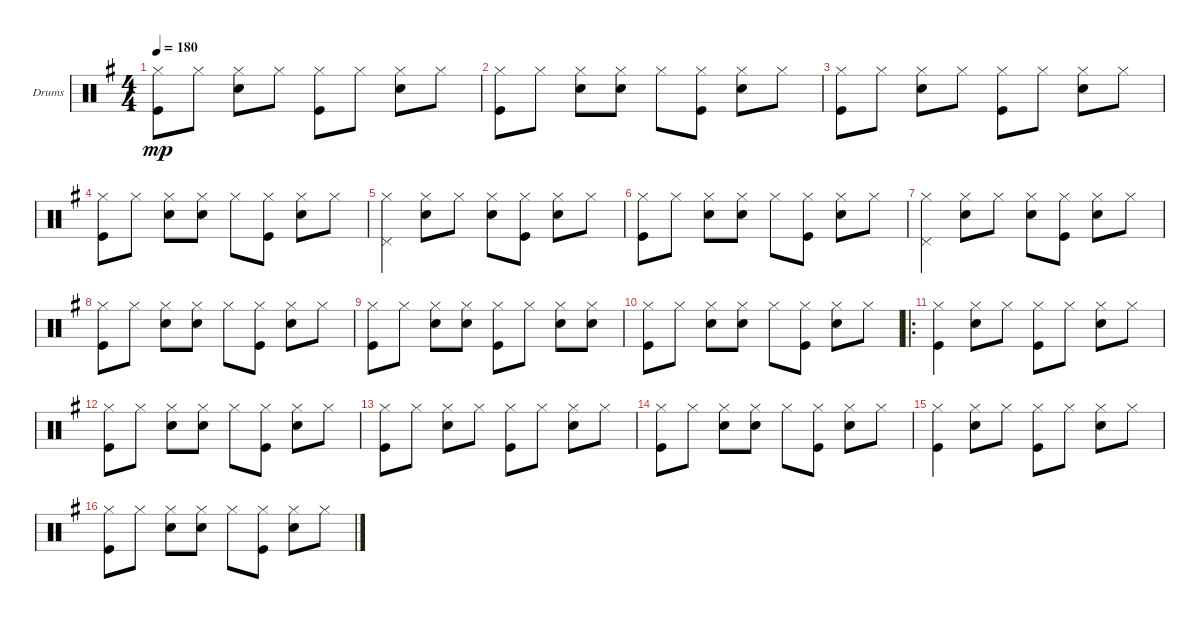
\defaultSystemsLayout 4
\bracketExtendMode groupsimilarinstruments
\firstSystemTrackNameOrientation horizontal
\otherSystemsTrackNameOrientation horizontal
\track ("Drumkit" "Drums") {instrument percussion}
\staff {score}
\articulation defaults
\ts (4 4)
\tempo 180
\clef neutral
\ks g
("Hi-Hat (closed)" "Kick (hit)").8{dy mp} "Hi-Hat (closed)".8 ("Hi-Hat (closed)" "Snare (hit) 2").8 "Hi-Hat (closed)".8 ("Hi-Hat (closed)" "Kick (hit)").8 "Hi-Hat (closed)".8 ("Hi-Hat (closed)" "Snare (hit) 2").8 "Hi-Hat (closed)".8 |
("Hi-Hat (closed)" "Kick (hit)").8 "Hi-Hat (closed)".8 ("Hi-Hat (closed)" "Snare (hit) 2").8 ("Snare (hit) 2" "Hi-Hat (closed)").8 "Hi-Hat (closed)".8 ("Hi-Hat (closed)" "Kick (hit)").8 ("Hi-Hat (closed)" "Snare (hit) 2").8 "Hi-Hat (closed)".8 |
("Hi-Hat (closed)" "Kick (hit)").8 "Hi-Hat (closed)".8 ("Hi-Hat (closed)" "Snare (hit) 2").8 "Hi-Hat (closed)".8 ("Hi-Hat (closed)" "Kick (hit)").8 "Hi-Hat (closed)".8 ("Hi-Hat (closed)" "Snare (hit) 2").8 "Hi-Hat (closed)".8 |
("Hi-Hat (closed)" "Kick (hit)").8 "Hi-Hat (closed)".8 ("Hi-Hat (closed)" "Snare (hit) 2").8 ("Snare (hit) 2" "Hi-Hat (closed)").8 "Hi-Hat (closed)".8 ("Hi-Hat (closed)" "Kick (hit)").8 ("Hi-Hat (closed)" "Snare (hit) 2").8 "Hi-Hat (closed)".8 |
("Pedal Hi-Hat (hit)" "Hi-Hat (closed)").4 ("Hi-Hat (closed)" "Snare (hit) 2").8 "Hi-Hat (closed)".8 ("Hi-Hat (closed)" "Snare (hit) 2").8 ("Hi-Hat (closed)" "Kick (hit)").8 ("Hi-Hat (closed)" "Snare (hit) 2").8 "Hi-Hat (closed)".8 |
("Hi-Hat (closed)" "Kick (hit)").8 "Hi-Hat (closed)".8 ("Hi-Hat (closed)" "Snare (hit) 2").8 ("Snare (hit) 2" "Hi-Hat (closed)").8 "Hi-Hat (closed)".8 ("Hi-Hat (closed)" "Kick (hit)").8 ("Hi-Hat (closed)" "Snare (hit) 2").8 "Hi-Hat (closed)".8 |
("Pedal Hi-Hat (hit)" "Hi-Hat (closed)").4 ("Hi-Hat (closed)" "Snare (hit) 2").8 "Hi-Hat (closed)".8 ("Hi-Hat (closed)" "Snare (hit) 2").8 ("Hi-Hat (closed)" "Kick (hit)").8 ("Hi-Hat (closed)" "Snare (hit) 2").8 "Hi-Hat (closed)".8 |
("Hi-Hat (closed)" "Kick (hit)").8 "Hi-Hat (closed)".8 ("Hi-Hat (closed)" "Snare (hit) 2").8 ("Snare (hit) 2" "Hi-Hat (closed)").8 "Hi-Hat (closed)".8 ("Hi-Hat (closed)" "Kick (hit)").8 ("Hi-Hat (closed)" "Snare (hit) 2").8 "Hi-Hat (closed)".8 |
("Kick (hit)" "Hi-Hat (closed)").8 "Hi-Hat (closed)".8 ("Hi-Hat (closed)" "Snare (hit) 2").8 ("Hi-Hat (closed)" "Snare (hit) 2").8 ("Hi-Hat (closed)" "Kick (hit)").8 "Hi-Hat (closed)".8 ("Hi-Hat (closed)" "Snare (hit) 2").8 ("Snare (hit) 2" "Hi-Hat (closed)").8 |
("Hi-Hat (closed)" "Kick (hit)").8 "Hi-Hat (closed)".8 ("Hi-Hat (closed)" "Snare (hit) 2").8 ("Hi-Hat (closed)" "Snare (hit) 2").8 "Hi-Hat (closed)".8 ("Hi-Hat (closed)" "Kick (hit)").8 ("Hi-Hat (closed)" "Snare (hit) 2").8 "Hi-Hat (closed)".8 |
\ro
("Hi-Hat (closed)" "Kick (hit)").4 ("Snare (hit) 2" "Hi-Hat (closed)").8 "Hi-Hat (closed)".8 ("Hi-Hat (closed)" "Kick (hit)").8 "Hi-Hat (closed)".8 ("Hi-Hat (closed)" "Snare (hit) 2").8 "Hi-Hat (closed)".8 |
("Hi-Hat (closed)" "Kick (hit)").8 "Hi-Hat (closed)".8 ("Hi-Hat (closed)" "Snare (hit) 2").8 ("Snare (hit) 2" "Hi-Hat (closed)").8 "Hi-Hat (closed)".8 ("Hi-Hat (closed)" "Kick (hit)").8 ("Hi-Hat (closed)" "Snare (hit) 2").8 "Hi-Hat (closed)".8 |
("Hi-Hat (closed)" "Kick (hit)").8 "Hi-Hat (closed)".8 ("Hi-Hat (closed)" "Snare (hit) 2").8 "Hi-Hat (closed)".8 ("Hi-Hat (closed)" "Kick (hit)").8 "Hi-Hat (closed)".8 ("Hi-Hat (closed)" "Snare (hit) 2").8 "Hi-Hat (closed)".8 |
("Hi-Hat (closed)" "Kick (hit)").8 "Hi-Hat (closed)".8 ("Hi-Hat (closed)" "Snare (hit) 2").8 ("Snare (hit) 2" "Hi-Hat (closed)").8 "Hi-Hat (closed)".8 ("Hi-Hat (closed)" "Kick (hit)").8 ("Hi-Hat (closed)" "Snare (hit) 2").8 "Hi-Hat (closed)".8 |
("Hi-Hat (closed)" "Kick (hit)").4 ("Hi-Hat (closed)" "Snare (hit) 2").8 "Hi-Hat (closed)".8 ("Hi-Hat (closed)" "Kick (hit)").8 "Hi-Hat (closed)".8 ("Hi-Hat (closed)" "Snare (hit) 2").8 "Hi-Hat (closed)".8 |
("Hi-Hat (closed)" "Kick (hit)").8 "Hi-Hat (closed)".8 ("Hi-Hat (closed)" "Snare (hit) 2").8 ("Snare (hit) 2" "Hi-Hat (closed)").8 "Hi-Hat (closed)".8 ("Hi-Hat (closed)" "Kick (hit)").8 ("Hi-Hat (closed)" "Snare (hit) 2").8 "Hi-Hat (closed)".8
